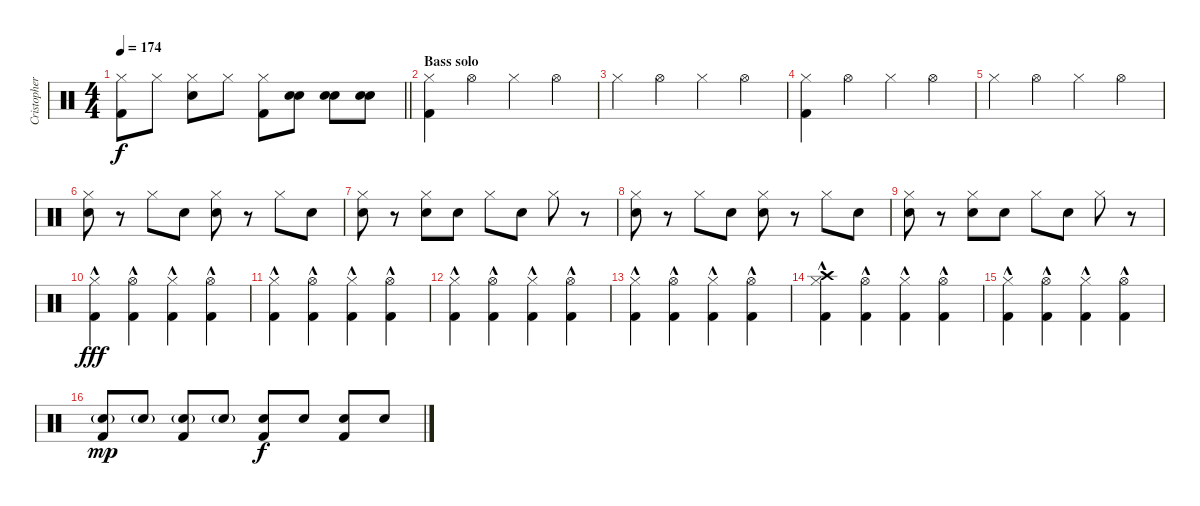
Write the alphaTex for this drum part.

\track ("Cristopher S. (Drums)" "Cristopher") {instrument percussion}
\staff {score}
\articulation defaults
\ts (4 4)
\tempo 174
\clef neutral
\barLineRight lightlight
\ks c
("Kick (hit) 2" "Hi-Hat (closed)").8{dy f} "Hi-Hat (closed)".8 ("Electric Snare (hit)" "Hi-Hat (closed)").8 "Hi-Hat (closed)".8 ("Kick (hit) 2" "Hi-Hat (closed)").8 ("Electric Snare (hit)" "Electric Snare (hit)").8 ("Electric Snare (hit)" "Electric Snare (hit)").8 ("Electric Snare (hit)" "Electric Snare (hit)").8 |
\section ("" "Bass solo")
("Hi-Hat (closed)" "Kick (hit) 2").4 "Hi-Hat (open)".4 "Hi-Hat (closed)".4 "Hi-Hat (open)".4 |
"Hi-Hat (closed)".4 "Hi-Hat (open)".4 "Hi-Hat (closed)".4 "Hi-Hat (open)".4 |
("Hi-Hat (closed)" "Kick (hit) 2").4 "Hi-Hat (open)".4 "Hi-Hat (closed)".4 "Hi-Hat (open)".4 |
"Hi-Hat (closed)".4 "Hi-Hat (open)".4 "Hi-Hat (closed)".4 "Hi-Hat (open)".4 |
("Hi-Hat (closed)" "Electric Snare (hit)").8 r.8 "Hi-Hat (closed)".8 "Electric Snare (hit)".8 ("Hi-Hat (closed)" "Electric Snare (hit)").8 r.8 "Hi-Hat (closed)".8 "Electric Snare (hit)".8 |
("Hi-Hat (closed)" "Electric Snare (hit)").8 r.8 ("Hi-Hat (closed)" "Electric Snare (hit)").8 "Electric Snare (hit)".8 "Hi-Hat (closed)".8 "Electric Snare (hit)".8 "Hi-Hat (closed)".8 r.8 |
("Hi-Hat (closed)" "Electric Snare (hit)").8 r.8 "Hi-Hat (closed)".8 "Electric Snare (hit)".8 ("Hi-Hat (closed)" "Electric Snare (hit)").8 r.8 "Hi-Hat (closed)".8 "Electric Snare (hit)".8 |
("Hi-Hat (closed)" "Electric Snare (hit)").8 r.8 ("Hi-Hat (closed)" "Electric Snare (hit)").8 "Electric Snare (hit)".8 "Hi-Hat (closed)".8 "Electric Snare (hit)".8 "Hi-Hat (closed)".8 r.8 |
("Hi-Hat (closed)" "Kick (hit) 2"{hac}).4{dy fff} ("Hi-Hat (open)" "Kick (hit) 2"{hac}).4 ("Hi-Hat (closed)" "Kick (hit) 2"{hac}).4 ("Hi-Hat (open)" "Kick (hit) 2"{hac}).4 |
("Hi-Hat (closed)" "Kick (hit) 2"{hac}).4 ("Hi-Hat (open)" "Kick (hit) 2"{hac}).4 ("Hi-Hat (closed)" "Kick (hit) 2"{hac}).4 ("Hi-Hat (open)" "Kick (hit) 2"{hac}).4 |
("Hi-Hat (closed)" "Kick (hit) 2"{hac}).4 ("Hi-Hat (open)" "Kick (hit) 2"{hac}).4 ("Hi-Hat (closed)" "Kick (hit) 2"{hac}).4 ("Hi-Hat (open)" "Kick (hit) 2"{hac}).4 |
("Hi-Hat (closed)" "Kick (hit) 2"{hac}).4 ("Hi-Hat (open)" "Kick (hit) 2"{hac}).4 ("Hi-Hat (closed)" "Kick (hit) 2"{hac}).4 ("Hi-Hat (open)" "Kick (hit) 2"{hac}).4 |
("Hi-Hat (closed)" "Kick (hit) 2"{hac} "Crash high (hit)").4 ("Hi-Hat (open)" "Kick (hit) 2"{hac}).4 ("Hi-Hat (closed)" "Kick (hit) 2"{hac}).4 ("Hi-Hat (open)" "Kick (hit) 2"{hac}).4 |
("Hi-Hat (closed)" "Kick (hit) 2"{hac}).4 ("Hi-Hat (open)" "Kick (hit) 2"{hac}).4 ("Hi-Hat (closed)" "Kick (hit) 2"{hac}).4 ("Hi-Hat (open)" "Kick (hit) 2"{hac}).4 |
("Kick (hit) 2" "Electric Snare (hit)"{g}).8{dy mp} "Electric Snare (hit)"{g}.8 ("Kick (hit) 2" "Electric Snare (hit)"{g}).8 "Electric Snare (hit)"{g}.8 ("Kick (hit) 2" "Electric Snare (hit)").8{dy f} "Electric Snare (hit)".8 ("Kick (hit) 2" "Electric Snare (hit)").8 "Electric Snare (hit)".8
